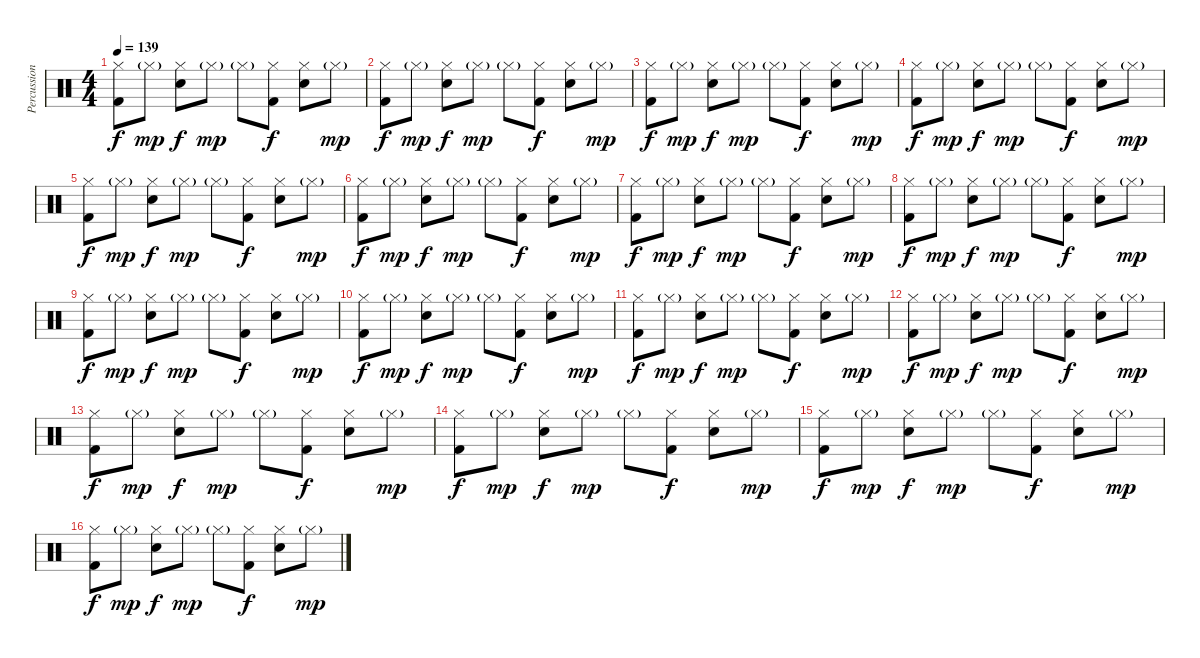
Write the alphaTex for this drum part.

\track ("Percussion" "Percussion") {instrument percussion}
\staff {score}
\articulation defaults
\ts (4 4)
\tempo 139
\clef neutral
\ks c
("Hi-Hat (closed)" "Kick (hit) 2").8{dy f} "Hi-Hat (closed)"{g}.8{dy mp} ("Hi-Hat (closed)" "Snare (hit) 2").8{dy f} "Hi-Hat (closed)"{g}.8{dy mp} "Hi-Hat (closed)"{g}.8 ("Hi-Hat (closed)" "Kick (hit) 2").8{dy f} ("Hi-Hat (closed)" "Snare (hit) 2").8 "Hi-Hat (closed)"{g}.8{dy mp} |
("Hi-Hat (closed)" "Kick (hit) 2").8{dy f} "Hi-Hat (closed)"{g}.8{dy mp} ("Hi-Hat (closed)" "Snare (hit) 2").8{dy f} "Hi-Hat (closed)"{g}.8{dy mp} "Hi-Hat (closed)"{g}.8 ("Hi-Hat (closed)" "Kick (hit) 2").8{dy f} ("Hi-Hat (closed)" "Snare (hit) 2").8 "Hi-Hat (closed)"{g}.8{dy mp} |
("Hi-Hat (closed)" "Kick (hit) 2").8{dy f} "Hi-Hat (closed)"{g}.8{dy mp} ("Hi-Hat (closed)" "Snare (hit) 2").8{dy f} "Hi-Hat (closed)"{g}.8{dy mp} "Hi-Hat (closed)"{g}.8 ("Hi-Hat (closed)" "Kick (hit) 2").8{dy f} ("Hi-Hat (closed)" "Snare (hit) 2").8 "Hi-Hat (closed)"{g}.8{dy mp} |
("Hi-Hat (closed)" "Kick (hit) 2").8{dy f} "Hi-Hat (closed)"{g}.8{dy mp} ("Hi-Hat (closed)" "Snare (hit) 2").8{dy f} "Hi-Hat (closed)"{g}.8{dy mp} "Hi-Hat (closed)"{g}.8 ("Hi-Hat (closed)" "Kick (hit) 2").8{dy f} ("Hi-Hat (closed)" "Snare (hit) 2").8 "Hi-Hat (closed)"{g}.8{dy mp} |
("Hi-Hat (closed)" "Kick (hit) 2").8{dy f} "Hi-Hat (closed)"{g}.8{dy mp} ("Hi-Hat (closed)" "Snare (hit) 2").8{dy f} "Hi-Hat (closed)"{g}.8{dy mp} "Hi-Hat (closed)"{g}.8 ("Hi-Hat (closed)" "Kick (hit) 2").8{dy f} ("Hi-Hat (closed)" "Snare (hit) 2").8 "Hi-Hat (closed)"{g}.8{dy mp} |
("Hi-Hat (closed)" "Kick (hit) 2").8{dy f} "Hi-Hat (closed)"{g}.8{dy mp} ("Hi-Hat (closed)" "Snare (hit) 2").8{dy f} "Hi-Hat (closed)"{g}.8{dy mp} "Hi-Hat (closed)"{g}.8 ("Hi-Hat (closed)" "Kick (hit) 2").8{dy f} ("Hi-Hat (closed)" "Snare (hit) 2").8 "Hi-Hat (closed)"{g}.8{dy mp} |
("Hi-Hat (closed)" "Kick (hit) 2").8{dy f} "Hi-Hat (closed)"{g}.8{dy mp} ("Hi-Hat (closed)" "Snare (hit) 2").8{dy f} "Hi-Hat (closed)"{g}.8{dy mp} "Hi-Hat (closed)"{g}.8 ("Hi-Hat (closed)" "Kick (hit) 2").8{dy f} ("Hi-Hat (closed)" "Snare (hit) 2").8 "Hi-Hat (closed)"{g}.8{dy mp} |
("Hi-Hat (closed)" "Kick (hit) 2").8{dy f} "Hi-Hat (closed)"{g}.8{dy mp} ("Hi-Hat (closed)" "Snare (hit) 2").8{dy f} "Hi-Hat (closed)"{g}.8{dy mp} "Hi-Hat (closed)"{g}.8 ("Hi-Hat (closed)" "Kick (hit) 2").8{dy f} ("Hi-Hat (closed)" "Snare (hit) 2").8 "Hi-Hat (closed)"{g}.8{dy mp} |
("Hi-Hat (closed)" "Kick (hit) 2").8{dy f} "Hi-Hat (closed)"{g}.8{dy mp} ("Hi-Hat (closed)" "Snare (hit) 2").8{dy f} "Hi-Hat (closed)"{g}.8{dy mp} "Hi-Hat (closed)"{g}.8 ("Hi-Hat (closed)" "Kick (hit) 2").8{dy f} ("Hi-Hat (closed)" "Snare (hit) 2").8 "Hi-Hat (closed)"{g}.8{dy mp} |
("Hi-Hat (closed)" "Kick (hit) 2").8{dy f} "Hi-Hat (closed)"{g}.8{dy mp} ("Hi-Hat (closed)" "Snare (hit) 2").8{dy f} "Hi-Hat (closed)"{g}.8{dy mp} "Hi-Hat (closed)"{g}.8 ("Hi-Hat (closed)" "Kick (hit) 2").8{dy f} ("Hi-Hat (closed)" "Snare (hit) 2").8 "Hi-Hat (closed)"{g}.8{dy mp} |
("Hi-Hat (closed)" "Kick (hit) 2").8{dy f} "Hi-Hat (closed)"{g}.8{dy mp} ("Hi-Hat (closed)" "Snare (hit) 2").8{dy f} "Hi-Hat (closed)"{g}.8{dy mp} "Hi-Hat (closed)"{g}.8 ("Hi-Hat (closed)" "Kick (hit) 2").8{dy f} ("Hi-Hat (closed)" "Snare (hit) 2").8 "Hi-Hat (closed)"{g}.8{dy mp} |
("Hi-Hat (closed)" "Kick (hit) 2").8{dy f} "Hi-Hat (closed)"{g}.8{dy mp} ("Hi-Hat (closed)" "Snare (hit) 2").8{dy f} "Hi-Hat (closed)"{g}.8{dy mp} "Hi-Hat (closed)"{g}.8 ("Hi-Hat (closed)" "Kick (hit) 2").8{dy f} ("Hi-Hat (closed)" "Snare (hit) 2").8 "Hi-Hat (closed)"{g}.8{dy mp} |
("Hi-Hat (closed)" "Kick (hit) 2").8{dy f} "Hi-Hat (closed)"{g}.8{dy mp} ("Hi-Hat (closed)" "Snare (hit) 2").8{dy f} "Hi-Hat (closed)"{g}.8{dy mp} "Hi-Hat (closed)"{g}.8 ("Hi-Hat (closed)" "Kick (hit) 2").8{dy f} ("Hi-Hat (closed)" "Snare (hit) 2").8 "Hi-Hat (closed)"{g}.8{dy mp} |
("Hi-Hat (closed)" "Kick (hit) 2").8{dy f} "Hi-Hat (closed)"{g}.8{dy mp} ("Hi-Hat (closed)" "Snare (hit) 2").8{dy f} "Hi-Hat (closed)"{g}.8{dy mp} "Hi-Hat (closed)"{g}.8 ("Hi-Hat (closed)" "Kick (hit) 2").8{dy f} ("Hi-Hat (closed)" "Snare (hit) 2").8 "Hi-Hat (closed)"{g}.8{dy mp} |
("Hi-Hat (closed)" "Kick (hit) 2").8{dy f} "Hi-Hat (closed)"{g}.8{dy mp} ("Hi-Hat (closed)" "Snare (hit) 2").8{dy f} "Hi-Hat (closed)"{g}.8{dy mp} "Hi-Hat (closed)"{g}.8 ("Hi-Hat (closed)" "Kick (hit) 2").8{dy f} ("Hi-Hat (closed)" "Snare (hit) 2").8 "Hi-Hat (closed)"{g}.8{dy mp} |
("Hi-Hat (closed)" "Kick (hit) 2").8{dy f} "Hi-Hat (closed)"{g}.8{dy mp} ("Hi-Hat (closed)" "Snare (hit) 2").8{dy f} "Hi-Hat (closed)"{g}.8{dy mp} "Hi-Hat (closed)"{g}.8 ("Hi-Hat (closed)" "Kick (hit) 2").8{dy f} ("Hi-Hat (closed)" "Snare (hit) 2").8 "Hi-Hat (closed)"{g}.8{dy mp}
